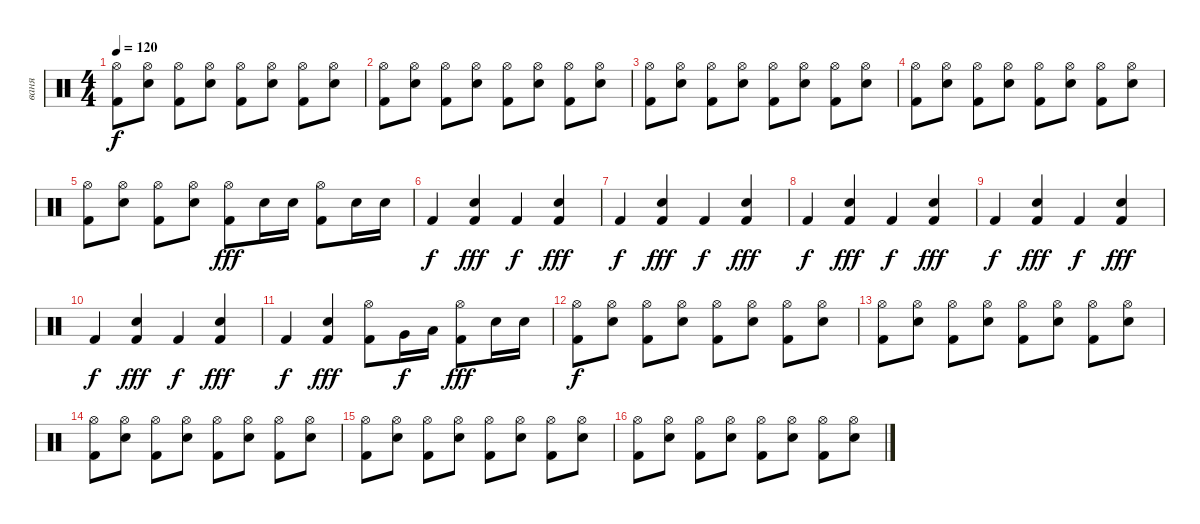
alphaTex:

\track ("ваня" "ваня") {instrument percussion}
\staff {score}
\articulation defaults
\ts (4 4)
\tempo 120
\clef neutral
\ks c
("Hi-Hat (open)" "Kick (hit) 2").8{dy f} ("Hi-Hat (open)" "Electric Snare (hit)").8 ("Hi-Hat (open)" "Kick (hit) 2").8 ("Hi-Hat (open)" "Electric Snare (hit)").8 ("Hi-Hat (open)" "Kick (hit) 2").8 ("Hi-Hat (open)" "Electric Snare (hit)").8 ("Hi-Hat (open)" "Kick (hit) 2").8 ("Hi-Hat (open)" "Electric Snare (hit)").8 |
("Hi-Hat (open)" "Kick (hit) 2").8 ("Hi-Hat (open)" "Electric Snare (hit)").8 ("Hi-Hat (open)" "Kick (hit) 2").8 ("Hi-Hat (open)" "Electric Snare (hit)").8 ("Hi-Hat (open)" "Kick (hit) 2").8 ("Hi-Hat (open)" "Electric Snare (hit)").8 ("Hi-Hat (open)" "Kick (hit) 2").8 ("Hi-Hat (open)" "Electric Snare (hit)").8 |
("Hi-Hat (open)" "Kick (hit) 2").8 ("Hi-Hat (open)" "Electric Snare (hit)").8 ("Hi-Hat (open)" "Kick (hit) 2").8 ("Hi-Hat (open)" "Electric Snare (hit)").8 ("Hi-Hat (open)" "Kick (hit) 2").8 ("Hi-Hat (open)" "Electric Snare (hit)").8 ("Hi-Hat (open)" "Kick (hit) 2").8 ("Hi-Hat (open)" "Electric Snare (hit)").8 |
("Hi-Hat (open)" "Kick (hit) 2").8 ("Hi-Hat (open)" "Electric Snare (hit)").8 ("Hi-Hat (open)" "Kick (hit) 2").8 ("Hi-Hat (open)" "Electric Snare (hit)").8 ("Hi-Hat (open)" "Kick (hit) 2").8 ("Hi-Hat (open)" "Electric Snare (hit)").8 ("Hi-Hat (open)" "Kick (hit) 2").8 ("Hi-Hat (open)" "Electric Snare (hit)").8 |
("Hi-Hat (open)" "Kick (hit) 2").8 ("Hi-Hat (open)" "Electric Snare (hit)").8 ("Hi-Hat (open)" "Kick (hit) 2").8 ("Hi-Hat (open)" "Electric Snare (hit)").8 ("Hi-Hat (open)" "Kick (hit) 2").8{dy fff} "Electric Snare (hit)".16 "Electric Snare (hit)".16 ("Hi-Hat (open)" "Kick (hit) 2").8 "Electric Snare (hit)".16 "Electric Snare (hit)".16 |
"Kick (hit) 2".4{dy f} ("Kick (hit) 2" "Electric Snare (hit)").4{dy fff} "Kick (hit) 2".4{dy f} ("Kick (hit) 2" "Electric Snare (hit)").4{dy fff} |
"Kick (hit) 2".4{dy f} ("Kick (hit) 2" "Electric Snare (hit)").4{dy fff} "Kick (hit) 2".4{dy f} ("Kick (hit) 2" "Electric Snare (hit)").4{dy fff} |
"Kick (hit) 2".4{dy f} ("Kick (hit) 2" "Electric Snare (hit)").4{dy fff} "Kick (hit) 2".4{dy f} ("Kick (hit) 2" "Electric Snare (hit)").4{dy fff} |
"Kick (hit) 2".4{dy f} ("Kick (hit) 2" "Electric Snare (hit)").4{dy fff} "Kick (hit) 2".4{dy f} ("Kick (hit) 2" "Electric Snare (hit)").4{dy fff} |
"Kick (hit) 2".4{dy f} ("Kick (hit) 2" "Electric Snare (hit)").4{dy fff} "Kick (hit) 2".4{dy f} ("Kick (hit) 2" "Electric Snare (hit)").4{dy fff} |
"Kick (hit) 2".4{dy f} ("Kick (hit) 2" "Electric Snare (hit)").4{dy fff} ("Hi-Hat (open)" "Kick (hit) 2").8 "Very Low Tom (hit)".16{dy f} "Low Tom (hit)".16 ("Hi-Hat (open)" "Kick (hit) 2").8{dy fff} "Electric Snare (hit)".16 "Electric Snare (hit)".16 |
("Hi-Hat (open)" "Kick (hit) 2").8{dy f} ("Hi-Hat (open)" "Electric Snare (hit)").8 ("Hi-Hat (open)" "Kick (hit) 2").8 ("Hi-Hat (open)" "Electric Snare (hit)").8 ("Hi-Hat (open)" "Kick (hit) 2").8 ("Hi-Hat (open)" "Electric Snare (hit)").8 ("Hi-Hat (open)" "Kick (hit) 2").8 ("Hi-Hat (open)" "Electric Snare (hit)").8 |
("Hi-Hat (open)" "Kick (hit) 2").8 ("Hi-Hat (open)" "Electric Snare (hit)").8 ("Hi-Hat (open)" "Kick (hit) 2").8 ("Hi-Hat (open)" "Electric Snare (hit)").8 ("Hi-Hat (open)" "Kick (hit) 2").8 ("Hi-Hat (open)" "Electric Snare (hit)").8 ("Hi-Hat (open)" "Kick (hit) 2").8 ("Hi-Hat (open)" "Electric Snare (hit)").8 |
("Hi-Hat (open)" "Kick (hit) 2").8 ("Hi-Hat (open)" "Electric Snare (hit)").8 ("Hi-Hat (open)" "Kick (hit) 2").8 ("Hi-Hat (open)" "Electric Snare (hit)").8 ("Hi-Hat (open)" "Kick (hit) 2").8 ("Hi-Hat (open)" "Electric Snare (hit)").8 ("Hi-Hat (open)" "Kick (hit) 2").8 ("Hi-Hat (open)" "Electric Snare (hit)").8 |
("Hi-Hat (open)" "Kick (hit) 2").8 ("Hi-Hat (open)" "Electric Snare (hit)").8 ("Hi-Hat (open)" "Kick (hit) 2").8 ("Hi-Hat (open)" "Electric Snare (hit)").8 ("Hi-Hat (open)" "Kick (hit) 2").8 ("Hi-Hat (open)" "Electric Snare (hit)").8 ("Hi-Hat (open)" "Kick (hit) 2").8 ("Hi-Hat (open)" "Electric Snare (hit)").8 |
("Hi-Hat (open)" "Kick (hit) 2").8 ("Hi-Hat (open)" "Electric Snare (hit)").8 ("Hi-Hat (open)" "Kick (hit) 2").8 ("Hi-Hat (open)" "Electric Snare (hit)").8 ("Hi-Hat (open)" "Kick (hit) 2").8 ("Hi-Hat (open)" "Electric Snare (hit)").8 ("Hi-Hat (open)" "Kick (hit) 2").8 ("Hi-Hat (open)" "Electric Snare (hit)").8
